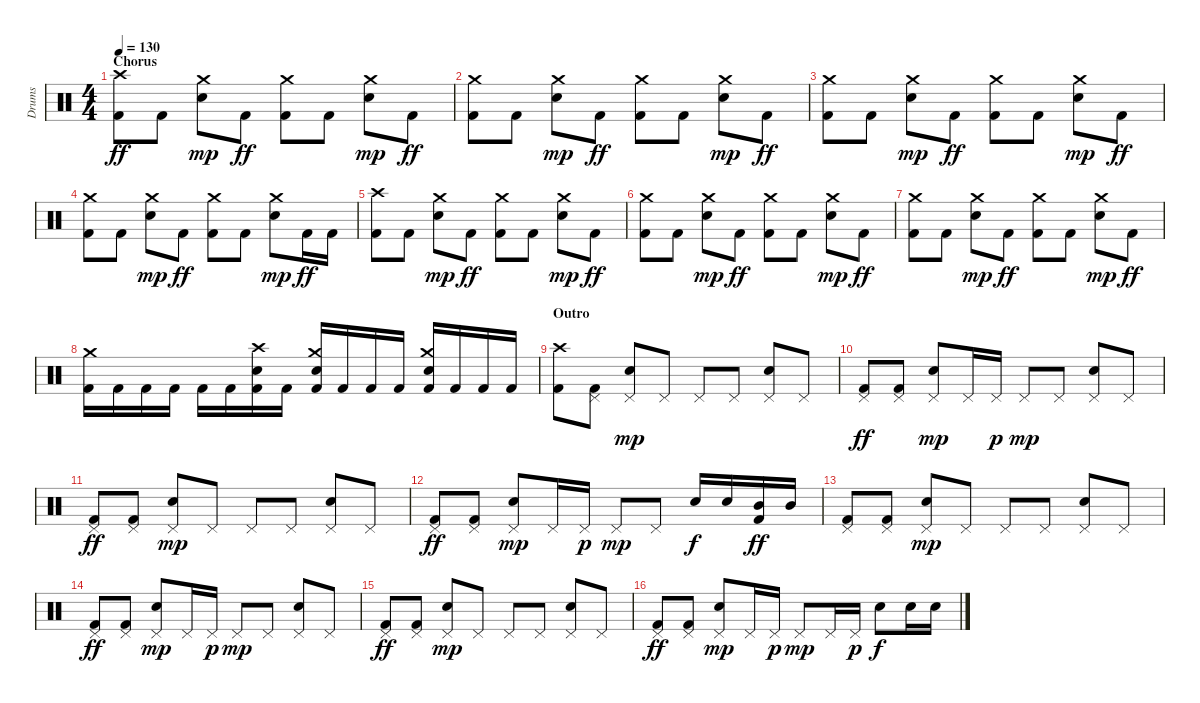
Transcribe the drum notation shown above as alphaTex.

\track ("Drums" "Drums") {instrument percussion}
\staff {score}
\articulation defaults
\ts (4 4)
\section ("" "Chorus")
\tempo 130
\clef neutral
\ks c
("Crash high (hit)" "Kick (hit) 2").8{dy ff} "Kick (hit) 2".8 ("Crash medium (hit)" "Electric Snare (hit)").8{dy mp} "Kick (hit) 2".8{dy ff} ("Crash medium (hit)" "Kick (hit) 2").8 "Kick (hit) 2".8 ("Crash medium (hit)" "Electric Snare (hit)").8{dy mp} "Kick (hit) 2".8{dy ff} |
("Crash medium (hit)" "Kick (hit) 2").8 "Kick (hit) 2".8 ("Crash medium (hit)" "Electric Snare (hit)").8{dy mp} "Kick (hit) 2".8{dy ff} ("Crash medium (hit)" "Kick (hit) 2").8 "Kick (hit) 2".8 ("Crash medium (hit)" "Electric Snare (hit)").8{dy mp} "Kick (hit) 2".8{dy ff} |
("Crash medium (hit)" "Kick (hit) 2").8 "Kick (hit) 2".8 ("Crash medium (hit)" "Electric Snare (hit)").8{dy mp} "Kick (hit) 2".8{dy ff} ("Crash medium (hit)" "Kick (hit) 2").8 "Kick (hit) 2".8 ("Crash medium (hit)" "Electric Snare (hit)").8{dy mp} "Kick (hit) 2".8{dy ff} |
("Crash medium (hit)" "Kick (hit) 2").8 "Kick (hit) 2".8 ("Crash medium (hit)" "Electric Snare (hit)").8{dy mp} "Kick (hit) 2".8{dy ff} ("Crash medium (hit)" "Kick (hit) 2").8 "Kick (hit) 2".8 ("Crash medium (hit)" "Electric Snare (hit)").8{dy mp} "Kick (hit) 2".16{dy ff} "Kick (hit) 2".16 |
("Crash high (hit)" "Kick (hit) 2").8 "Kick (hit) 2".8 ("Crash medium (hit)" "Electric Snare (hit)").8{dy mp} "Kick (hit) 2".8{dy ff} ("Crash medium (hit)" "Kick (hit) 2").8 "Kick (hit) 2".8 ("Crash medium (hit)" "Electric Snare (hit)").8{dy mp} "Kick (hit) 2".8{dy ff} |
("Crash medium (hit)" "Kick (hit) 2").8 "Kick (hit) 2".8 ("Crash medium (hit)" "Electric Snare (hit)").8{dy mp} "Kick (hit) 2".8{dy ff} ("Crash medium (hit)" "Kick (hit) 2").8 "Kick (hit) 2".8 ("Crash medium (hit)" "Electric Snare (hit)").8{dy mp} "Kick (hit) 2".8{dy ff} |
("Crash medium (hit)" "Kick (hit) 2").8 "Kick (hit) 2".8 ("Crash medium (hit)" "Electric Snare (hit)").8{dy mp} "Kick (hit) 2".8{dy ff} ("Crash medium (hit)" "Kick (hit) 2").8 "Kick (hit) 2".8 ("Crash medium (hit)" "Electric Snare (hit)").8{dy mp} "Kick (hit) 2".8{dy ff} |
("Crash medium (hit)" "Kick (hit) 2").16 "Kick (hit) 2".16 "Kick (hit) 2".16 "Kick (hit) 2".16 "Kick (hit) 2".16 "Kick (hit) 2".16 ("Crash high (hit)" "Electric Snare (hit)" "Kick (hit) 2").16 "Kick (hit) 2".16 ("Crash medium (hit)" "Electric Snare (hit)" "Kick (hit) 2").16 "Kick (hit) 2".16 "Kick (hit) 2".16 "Kick (hit) 2".16 ("Crash medium (hit)" "Electric Snare (hit)" "Kick (hit) 2").16 "Kick (hit) 2".16 "Kick (hit) 2".16 "Kick (hit) 2".16 |
\section ("" "Outro")
("Crash high (hit)" "Kick (hit) 2").8 ("Pedal Hi-Hat (hit)" "Kick (hit) 2").8 ("Pedal Hi-Hat (hit)" "Electric Snare (hit)").8{dy mp} "Pedal Hi-Hat (hit)".8 "Pedal Hi-Hat (hit)".8 "Pedal Hi-Hat (hit)".8 ("Pedal Hi-Hat (hit)" "Electric Snare (hit)").8 "Pedal Hi-Hat (hit)".8 |
("Pedal Hi-Hat (hit)" "Kick (hit) 2").8{dy ff} ("Pedal Hi-Hat (hit)" "Kick (hit) 2").8 ("Pedal Hi-Hat (hit)" "Electric Snare (hit)").8{dy mp} "Pedal Hi-Hat (hit)".16 "Pedal Hi-Hat (hit)".16{dy p} "Pedal Hi-Hat (hit)".8{dy mp} "Pedal Hi-Hat (hit)".8 ("Pedal Hi-Hat (hit)" "Electric Snare (hit)").8 "Pedal Hi-Hat (hit)".8 |
("Pedal Hi-Hat (hit)" "Kick (hit) 2").8{dy ff} ("Pedal Hi-Hat (hit)" "Kick (hit) 2").8 ("Pedal Hi-Hat (hit)" "Electric Snare (hit)").8{dy mp} "Pedal Hi-Hat (hit)".8 "Pedal Hi-Hat (hit)".8 "Pedal Hi-Hat (hit)".8 ("Pedal Hi-Hat (hit)" "Electric Snare (hit)").8 "Pedal Hi-Hat (hit)".8 |
("Pedal Hi-Hat (hit)" "Kick (hit) 2").8{dy ff} ("Pedal Hi-Hat (hit)" "Kick (hit) 2").8 ("Pedal Hi-Hat (hit)" "Electric Snare (hit)").8{dy mp} "Pedal Hi-Hat (hit)".16 "Pedal Hi-Hat (hit)".16{dy p} "Pedal Hi-Hat (hit)".8{dy mp} "Pedal Hi-Hat (hit)".8 "Electric Snare (hit)".16{dy f} "Electric Snare (hit)".16 ("Mid Tom (hit)" "Kick (hit) 2").16{dy ff} "Mid Tom (hit)".16 |
("Pedal Hi-Hat (hit)" "Kick (hit) 2").8 ("Pedal Hi-Hat (hit)" "Kick (hit) 2").8 ("Pedal Hi-Hat (hit)" "Electric Snare (hit)").8{dy mp} "Pedal Hi-Hat (hit)".8 "Pedal Hi-Hat (hit)".8 "Pedal Hi-Hat (hit)".8 ("Pedal Hi-Hat (hit)" "Electric Snare (hit)").8 "Pedal Hi-Hat (hit)".8 |
("Pedal Hi-Hat (hit)" "Kick (hit) 2").8{dy ff} ("Pedal Hi-Hat (hit)" "Kick (hit) 2").8 ("Pedal Hi-Hat (hit)" "Electric Snare (hit)").8{dy mp} "Pedal Hi-Hat (hit)".16 "Pedal Hi-Hat (hit)".16{dy p} "Pedal Hi-Hat (hit)".8{dy mp} "Pedal Hi-Hat (hit)".8 ("Pedal Hi-Hat (hit)" "Electric Snare (hit)").8 "Pedal Hi-Hat (hit)".8 |
("Pedal Hi-Hat (hit)" "Kick (hit) 2").8{dy ff} ("Pedal Hi-Hat (hit)" "Kick (hit) 2").8 ("Pedal Hi-Hat (hit)" "Electric Snare (hit)").8{dy mp} "Pedal Hi-Hat (hit)".8 "Pedal Hi-Hat (hit)".8 "Pedal Hi-Hat (hit)".8 ("Pedal Hi-Hat (hit)" "Electric Snare (hit)").8 "Pedal Hi-Hat (hit)".8 |
("Pedal Hi-Hat (hit)" "Kick (hit) 2").8{dy ff} ("Pedal Hi-Hat (hit)" "Kick (hit) 2").8 ("Pedal Hi-Hat (hit)" "Electric Snare (hit)").8{dy mp} "Pedal Hi-Hat (hit)".16 "Pedal Hi-Hat (hit)".16{dy p} "Pedal Hi-Hat (hit)".8{dy mp} "Pedal Hi-Hat (hit)".16 "Pedal Hi-Hat (hit)".16{dy p} "Electric Snare (hit)".8{dy f} "Electric Snare (hit)".16 "Electric Snare (hit)".16
